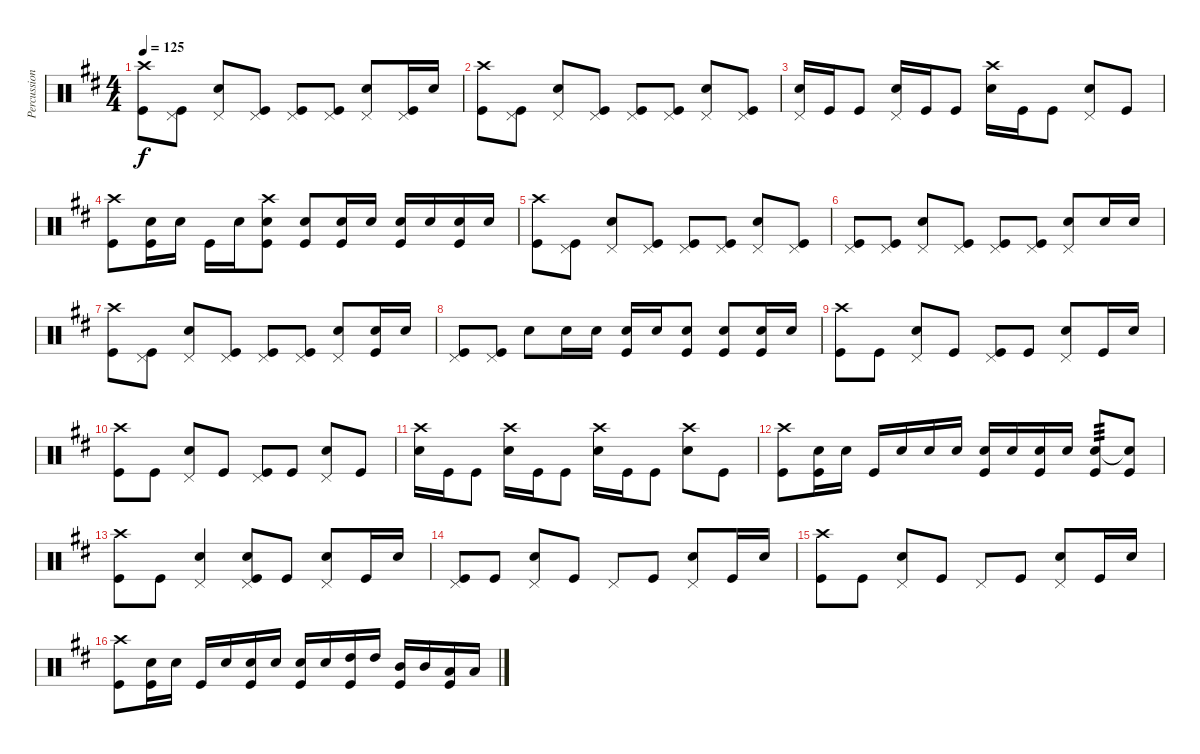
\track ("Percussion" "Percussion") {instrument percussion}
\staff {score}
\articulation defaults
\ts (4 4)
\tempo 125
\clef neutral
\ks d
("Crash high (hit)" "Kick (hit)").8{dy f} ("Pedal Hi-Hat (hit)" "Kick (hit)").8 ("Pedal Hi-Hat (hit)" "Snare (hit) 2").8 ("Pedal Hi-Hat (hit)" "Kick (hit)").8 ("Pedal Hi-Hat (hit)" "Kick (hit)").8 ("Pedal Hi-Hat (hit)" "Kick (hit)").8 ("Pedal Hi-Hat (hit)" "Snare (hit) 2").8 ("Pedal Hi-Hat (hit)" "Kick (hit)").16 "Snare (hit) 2".16 |
("Crash high (hit)" "Kick (hit)").8 ("Pedal Hi-Hat (hit)" "Kick (hit)").8 ("Pedal Hi-Hat (hit)" "Snare (hit) 2").8 ("Pedal Hi-Hat (hit)" "Kick (hit)").8 ("Pedal Hi-Hat (hit)" "Kick (hit)").8 ("Pedal Hi-Hat (hit)" "Kick (hit)").8 ("Pedal Hi-Hat (hit)" "Snare (hit) 2").8 ("Pedal Hi-Hat (hit)" "Kick (hit)").8 |
("Pedal Hi-Hat (hit)" "Snare (hit) 2").16 "Kick (hit)".16 "Kick (hit)".8 ("Pedal Hi-Hat (hit)" "Snare (hit) 2").16 "Kick (hit)".16 "Kick (hit)".8 ("Crash high (hit)" "Snare (hit) 2").16 "Kick (hit)".16 "Kick (hit)".8 ("Pedal Hi-Hat (hit)" "Snare (hit) 2").8 "Kick (hit)".8 |
("Crash high (hit)" "Kick (hit)").8 ("Snare (hit) 2" "Kick (hit)").16 "Snare (hit) 2".16 "Kick (hit)".16 "Snare (hit) 2".16 ("Crash high (hit)" "Snare (hit) 2" "Kick (hit)").8 ("Snare (hit) 2" "Kick (hit)").8 ("Snare (hit) 2" "Kick (hit)").16 "Snare (hit) 2".16 ("Snare (hit) 2" "Kick (hit)").16 "Snare (hit) 2".16 ("Snare (hit) 2" "Kick (hit)").16 "Snare (hit) 2".16 |
("Crash high (hit)" "Kick (hit)").8 ("Pedal Hi-Hat (hit)" "Kick (hit)").8 ("Pedal Hi-Hat (hit)" "Snare (hit) 2").8 ("Pedal Hi-Hat (hit)" "Kick (hit)").8 ("Pedal Hi-Hat (hit)" "Kick (hit)").8 ("Pedal Hi-Hat (hit)" "Kick (hit)").8 ("Pedal Hi-Hat (hit)" "Snare (hit) 2").8 ("Pedal Hi-Hat (hit)" "Kick (hit)").8 |
("Pedal Hi-Hat (hit)" "Kick (hit)").8 ("Pedal Hi-Hat (hit)" "Kick (hit)").8 ("Pedal Hi-Hat (hit)" "Snare (hit) 2").8 ("Pedal Hi-Hat (hit)" "Kick (hit)").8 ("Pedal Hi-Hat (hit)" "Kick (hit)").8 ("Pedal Hi-Hat (hit)" "Kick (hit)").8 ("Pedal Hi-Hat (hit)" "Snare (hit) 2").8 "Snare (hit) 2".16 "Snare (hit) 2".16 |
("Crash high (hit)" "Kick (hit)").8 ("Pedal Hi-Hat (hit)" "Kick (hit)").8 ("Pedal Hi-Hat (hit)" "Snare (hit) 2").8 ("Pedal Hi-Hat (hit)" "Kick (hit)").8 ("Pedal Hi-Hat (hit)" "Kick (hit)").8 ("Pedal Hi-Hat (hit)" "Kick (hit)").8 ("Pedal Hi-Hat (hit)" "Snare (hit) 2").8 ("Snare (hit) 2" "Kick (hit)").16 "Snare (hit) 2".16 |
("Pedal Hi-Hat (hit)" "Kick (hit)").8 ("Pedal Hi-Hat (hit)" "Kick (hit)").8 "Snare (hit) 2".8 "Snare (hit) 2".16 "Snare (hit) 2".16 ("Snare (hit) 2" "Kick (hit)").16 "Snare (hit) 2".16 ("Snare (hit) 2" "Kick (hit)").8 ("Snare (hit) 2" "Kick (hit)").8 ("Snare (hit) 2" "Kick (hit)").16 "Snare (hit) 2".16 |
("Crash high (hit)" "Kick (hit)").8 "Kick (hit)".8 ("Pedal Hi-Hat (hit)" "Snare (hit) 2").8 "Kick (hit)".8 ("Pedal Hi-Hat (hit)" "Kick (hit)").8 "Kick (hit)".8 ("Pedal Hi-Hat (hit)" "Snare (hit) 2").8 "Kick (hit)".16 "Snare (hit) 2".16 |
("Crash high (hit)" "Kick (hit)").8 "Kick (hit)".8 ("Pedal Hi-Hat (hit)" "Snare (hit) 2").8 "Kick (hit)".8 ("Pedal Hi-Hat (hit)" "Kick (hit)").8 "Kick (hit)".8 ("Pedal Hi-Hat (hit)" "Snare (hit) 2").8 "Kick (hit)".8 |
("Crash high (hit)" "Snare (hit) 2").16 "Kick (hit)".16 "Kick (hit)".8 ("Crash high (hit)" "Snare (hit) 2").16 "Kick (hit)".16 "Kick (hit)".8 ("Crash high (hit)" "Snare (hit) 2").16 "Kick (hit)".16 "Kick (hit)".8 ("Crash high (hit)" "Snare (hit) 2").8 "Kick (hit)".8 |
("Crash high (hit)" "Kick (hit)").8 ("Snare (hit) 2" "Kick (hit)").16 "Snare (hit) 2".16 "Kick (hit)".16 "Snare (hit) 2".16 "Snare (hit) 2".16 "Snare (hit) 2".16 ("Snare (hit) 2" "Kick (hit)").16 "Snare (hit) 2".16 ("Snare (hit) 2" "Kick (hit)").16 "Snare (hit) 2".16 ("Snare (hit) 2" "Kick (hit)").8{tp 3} ("Snare (hit)"{t} "Kick (hit)").8 |
("Crash high (hit)" "Kick (hit)").8 "Kick (hit)".8 ("Pedal Hi-Hat (hit)" "Snare (hit) 2").4 ("Pedal Hi-Hat (hit)" "Snare (hit) 2" "Kick (hit)").8 "Kick (hit)".8 ("Pedal Hi-Hat (hit)" "Snare (hit) 2").8 "Kick (hit)".16 "Snare (hit) 2".16 |
("Pedal Hi-Hat (hit)" "Kick (hit)").8 "Kick (hit)".8 ("Pedal Hi-Hat (hit)" "Snare (hit) 2").8 "Kick (hit)".8 "Pedal Hi-Hat (hit)".8 "Kick (hit)".8 ("Pedal Hi-Hat (hit)" "Snare (hit) 2").8 "Kick (hit)".16 "Snare (hit) 2".16 |
("Crash high (hit)" "Kick (hit)").8 "Kick (hit)".8 ("Pedal Hi-Hat (hit)" "Snare (hit) 2").8 "Kick (hit)".8 "Pedal Hi-Hat (hit)".8 "Kick (hit)".8 ("Pedal Hi-Hat (hit)" "Snare (hit) 2").8 "Kick (hit)".16 "Snare (hit) 2".16 |
("Crash high (hit)" "Kick (hit)").8 ("Snare (hit) 2" "Kick (hit)").16 "Snare (hit) 2".16 "Kick (hit)".16 "Snare (hit) 2".16 ("Snare (hit) 2" "Kick (hit)").16 "Snare (hit) 2".16 ("Snare (hit) 2" "Kick (hit)").16 "Snare (hit) 2".16 ("High Tom (hit)" "Kick (hit)").16 "High Tom (hit)".16 ("Mid Tom (hit)" "Kick (hit)").16 "Mid Tom (hit)".16 ("Low Tom (hit)" "Kick (hit)").16 "Low Tom (hit)".16
